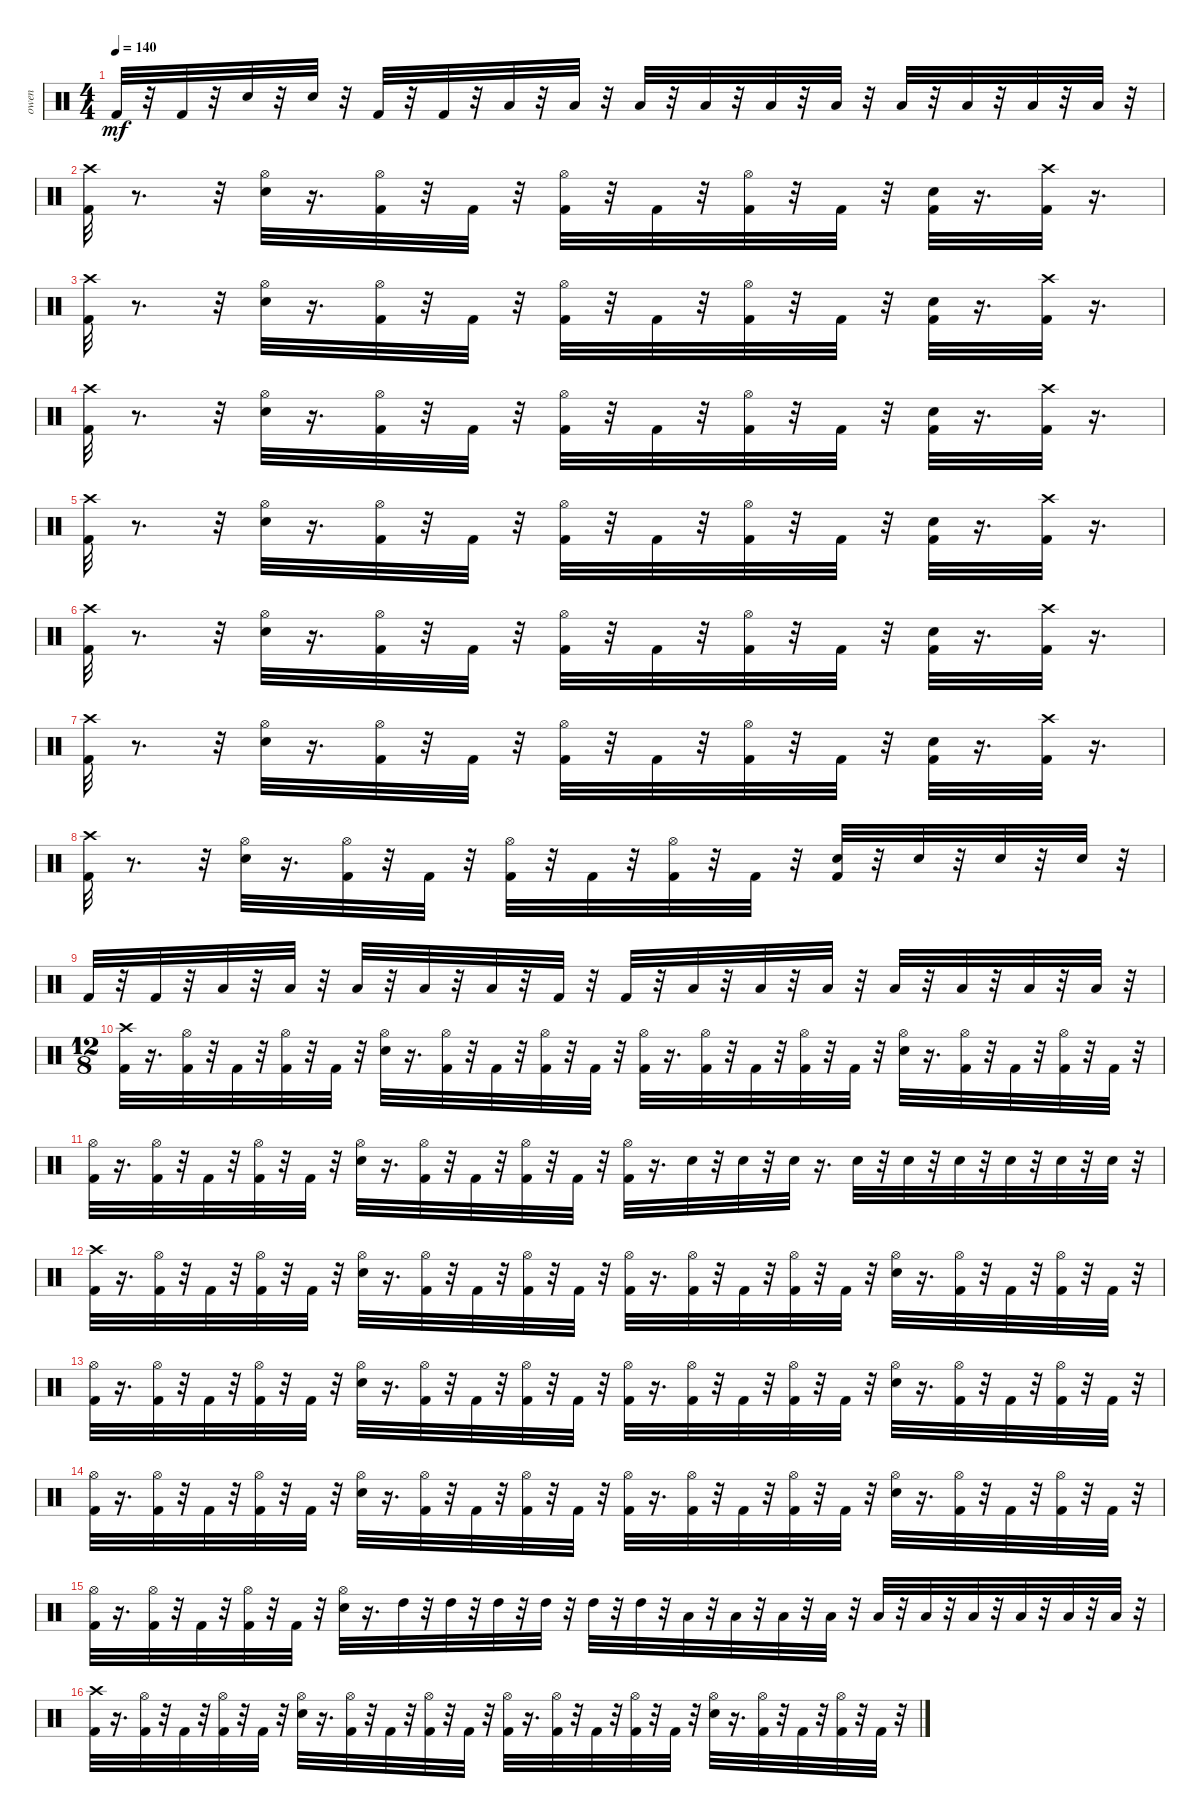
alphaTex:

\track ("owen" "owen") {instrument percussion}
\staff {score}
\articulation defaults
\ts (4 4)
\tempo 140
\clef neutral
\ks c "Kick (hit) 2".32{dy mf}
r.32 "Kick (hit) 2".32 r.32 "Snare (hit) 2".32 r.32 "Snare (hit) 2".32 r.32 "Kick (hit) 2".32 r.32 "Kick (hit) 2".32 r.32 "Low Floor Tom (hit)".32 r.32 "Low Floor Tom (hit)".32 r.32 "Low Floor Tom (hit)".32 r.32 "Low Floor Tom (hit)".32 r.32 "Low Tom (hit)".32 r.32 "Low Tom (hit)".32 r.32 "Low Tom (hit)".32 r.32 "Low Tom (hit)".32 r.32 "Low Tom (hit)".32 r.32 "Low Tom (hit)".32 r.32 |
("Kick (hit) 2" "Crash high (hit)").32 r.8{d} r.32 ("Snare (hit) 2" "Hi-Hat (open)").32 r.16{d} ("Kick (hit) 2" "Hi-Hat (open)").32 r.32 "Kick (hit) 2".32 r.32 ("Kick (hit) 2" "Hi-Hat (open)").32 r.32 "Kick (hit) 2".32 r.32 ("Kick (hit) 2" "Hi-Hat (open)").32 r.32 "Kick (hit) 2".32 r.32 ("Kick (hit) 2" "Snare (hit) 2").32 r.16{d} ("Kick (hit) 2" "Crash high (hit)").32 r.16{d} |
("Kick (hit) 2" "Crash high (hit)").32 r.8{d} r.32 ("Snare (hit) 2" "Hi-Hat (open)").32 r.16{d} ("Hi-Hat (open)" "Kick (hit) 2").32 r.32 "Kick (hit) 2".32 r.32 ("Kick (hit) 2" "Hi-Hat (open)").32 r.32 "Kick (hit) 2".32 r.32 ("Kick (hit) 2" "Hi-Hat (open)").32 r.32 "Kick (hit) 2".32 r.32 ("Kick (hit) 2" "Snare (hit) 2").32 r.16{d} ("Kick (hit) 2" "Crash high (hit)").32 r.16{d} |
("Kick (hit) 2" "Crash high (hit)").32 r.8{d} r.32 ("Snare (hit) 2" "Hi-Hat (open)").32 r.16{d} ("Hi-Hat (open)" "Kick (hit) 2").32 r.32 "Kick (hit) 2".32 r.32 ("Kick (hit) 2" "Hi-Hat (open)").32 r.32 "Kick (hit) 2".32 r.32 ("Kick (hit) 2" "Hi-Hat (open)").32 r.32 "Kick (hit) 2".32 r.32 ("Kick (hit) 2" "Snare (hit) 2").32 r.16{d} ("Kick (hit) 2" "Crash high (hit)").32 r.16{d} |
("Kick (hit) 2" "Crash high (hit)").32 r.8{d} r.32 ("Snare (hit) 2" "Hi-Hat (open)").32 r.16{d} ("Kick (hit) 2" "Hi-Hat (open)").32 r.32 "Kick (hit) 2".32 r.32 ("Kick (hit) 2" "Hi-Hat (open)").32 r.32 "Kick (hit) 2".32 r.32 ("Kick (hit) 2" "Hi-Hat (open)").32 r.32 "Kick (hit) 2".32 r.32 ("Kick (hit) 2" "Snare (hit) 2").32 r.16{d} ("Kick (hit) 2" "Crash high (hit)").32 r.16{d} |
("Kick (hit) 2" "Crash high (hit)").32 r.8{d} r.32 ("Snare (hit) 2" "Hi-Hat (open)").32 r.16{d} ("Kick (hit) 2" "Hi-Hat (open)").32 r.32 "Kick (hit) 2".32 r.32 ("Kick (hit) 2" "Hi-Hat (open)").32 r.32 "Kick (hit) 2".32 r.32 ("Kick (hit) 2" "Hi-Hat (open)").32 r.32 "Kick (hit) 2".32 r.32 ("Kick (hit) 2" "Snare (hit) 2").32 r.16{d} ("Kick (hit) 2" "Crash high (hit)").32 r.16{d} |
("Kick (hit) 2" "Crash high (hit)").32 r.8{d} r.32 ("Snare (hit) 2" "Hi-Hat (open)").32 r.16{d} ("Kick (hit) 2" "Hi-Hat (open)").32 r.32 "Kick (hit) 2".32 r.32 ("Kick (hit) 2" "Hi-Hat (open)").32 r.32 "Kick (hit) 2".32 r.32 ("Kick (hit) 2" "Hi-Hat (open)").32 r.32 "Kick (hit) 2".32 r.32 ("Kick (hit) 2" "Snare (hit) 2").32 r.16{d} ("Kick (hit) 2" "Crash high (hit)").32 r.16{d} |
("Kick (hit) 2" "Crash high (hit)").32 r.8{d} r.32 ("Snare (hit) 2" "Hi-Hat (open)").32 r.16{d} ("Kick (hit) 2" "Hi-Hat (open)").32 r.32 "Kick (hit) 2".32 r.32 ("Kick (hit) 2" "Hi-Hat (open)").32 r.32 "Kick (hit) 2".32 r.32 ("Kick (hit) 2" "Hi-Hat (open)").32 r.32 "Kick (hit) 2".32 r.32 ("Kick (hit) 2" "Snare (hit) 2").32 r.32 "Snare (hit) 2".32 r.32 "Snare (hit) 2".32 r.32 "Snare (hit) 2".32 r.32 |
"Kick (hit) 2".32 r.32 "Kick (hit) 2".32 r.32 "Low Tom (hit)".32 r.32 "Low Tom (hit)".32 r.32 "Low Tom (hit)".32 r.32 "Low Tom (hit)".32 r.32 "Low Tom (hit)".32 r.32 "Kick (hit) 2".32 r.32 "Kick (hit) 2".32 r.32 "Low Floor Tom (hit)".32 r.32 "Low Floor Tom (hit)".32 r.32 "Low Floor Tom (hit)".32 r.32 "Low Floor Tom (hit)".32 r.32 "Low Tom (hit)".32 r.32 "Low Tom (hit)".32 r.32 "Low Tom (hit)".32 r.32 |
\ts (12 8)
("Kick (hit) 2" "Crash high (hit)").32 r.16{d} ("Kick (hit) 2" "Hi-Hat (open)").32 r.32 "Kick (hit) 2".32 r.32 ("Kick (hit) 2" "Hi-Hat (open)").32 r.32 "Kick (hit) 2".32 r.32 ("Snare (hit) 2" "Hi-Hat (open)").32 r.16{d} ("Kick (hit) 2" "Hi-Hat (open)").32 r.32 "Kick (hit) 2".32 r.32 ("Kick (hit) 2" "Hi-Hat (open)").32 r.32 "Kick (hit) 2".32 r.32 ("Kick (hit) 2" "Hi-Hat (open)").32 r.16{d} ("Kick (hit) 2" "Hi-Hat (open)").32 r.32 "Kick (hit) 2".32 r.32 ("Kick (hit) 2" "Hi-Hat (open)").32 r.32 "Kick (hit) 2".32 r.32 ("Snare (hit) 2" "Hi-Hat (open)").32 r.16{d} ("Kick (hit) 2" "Hi-Hat (open)").32 r.32 "Kick (hit) 2".32 r.32 ("Kick (hit) 2" "Hi-Hat (open)").32 r.32 "Kick (hit) 2".32 r.32 |
("Kick (hit) 2" "Hi-Hat (open)").32 r.16{d} ("Kick (hit) 2" "Hi-Hat (open)").32 r.32 "Kick (hit) 2".32 r.32 ("Kick (hit) 2" "Hi-Hat (open)").32 r.32 "Kick (hit) 2".32 r.32 ("Snare (hit) 2" "Hi-Hat (open)").32 r.16{d} ("Kick (hit) 2" "Hi-Hat (open)").32 r.32 "Kick (hit) 2".32 r.32 ("Kick (hit) 2" "Hi-Hat (open)").32 r.32 "Kick (hit) 2".32 r.32 ("Kick (hit) 2" "Hi-Hat (open)").32 r.16{d} "Snare (hit) 2".32 r.32 "Snare (hit) 2".32 r.32 "Snare (hit) 2".32 r.16{d} "Snare (hit) 2".32 r.32 "Snare (hit) 2".32 r.32 "Snare (hit) 2".32 r.32 "Snare (hit) 2".32 r.32 "Snare (hit) 2".32 r.32 "Snare (hit) 2".32 r.32 |
("Kick (hit) 2" "Crash high (hit)").32 r.16{d} ("Kick (hit) 2" "Hi-Hat (open)").32 r.32 "Kick (hit) 2".32 r.32 ("Kick (hit) 2" "Hi-Hat (open)").32 r.32 "Kick (hit) 2".32 r.32 ("Snare (hit) 2" "Hi-Hat (open)").32 r.16{d} ("Kick (hit) 2" "Hi-Hat (open)").32 r.32 "Kick (hit) 2".32 r.32 ("Kick (hit) 2" "Hi-Hat (open)").32 r.32 "Kick (hit) 2".32 r.32 ("Kick (hit) 2" "Hi-Hat (open)").32 r.16{d} ("Kick (hit) 2" "Hi-Hat (open)").32 r.32 "Kick (hit) 2".32 r.32 ("Kick (hit) 2" "Hi-Hat (open)").32 r.32 "Kick (hit) 2".32 r.32 ("Snare (hit) 2" "Hi-Hat (open)").32 r.16{d} ("Kick (hit) 2" "Hi-Hat (open)").32 r.32 "Kick (hit) 2".32 r.32 ("Kick (hit) 2" "Hi-Hat (open)").32 r.32 "Kick (hit) 2".32 r.32 |
("Kick (hit) 2" "Hi-Hat (open)").32 r.16{d} ("Kick (hit) 2" "Hi-Hat (open)").32 r.32 "Kick (hit) 2".32 r.32 ("Kick (hit) 2" "Hi-Hat (open)").32 r.32 "Kick (hit) 2".32 r.32 ("Snare (hit) 2" "Hi-Hat (open)").32 r.16{d} ("Kick (hit) 2" "Hi-Hat (open)").32 r.32 "Kick (hit) 2".32 r.32 ("Kick (hit) 2" "Hi-Hat (open)").32 r.32 "Kick (hit) 2".32 r.32 ("Kick (hit) 2" "Hi-Hat (open)").32 r.16{d} ("Kick (hit) 2" "Hi-Hat (open)").32 r.32 "Kick (hit) 2".32 r.32 ("Kick (hit) 2" "Hi-Hat (open)").32 r.32 "Kick (hit) 2".32 r.32 ("Snare (hit) 2" "Hi-Hat (open)").32 r.16{d} ("Kick (hit) 2" "Hi-Hat (open)").32 r.32 "Kick (hit) 2".32 r.32 ("Kick (hit) 2" "Hi-Hat (open)").32 r.32 "Kick (hit) 2".32 r.32 |
("Kick (hit) 2" "Hi-Hat (open)").32 r.16{d} ("Kick (hit) 2" "Hi-Hat (open)").32 r.32 "Kick (hit) 2".32 r.32 ("Kick (hit) 2" "Hi-Hat (open)").32 r.32 "Kick (hit) 2".32 r.32 ("Snare (hit) 2" "Hi-Hat (open)").32 r.16{d} ("Kick (hit) 2" "Hi-Hat (open)").32 r.32 "Kick (hit) 2".32 r.32 ("Kick (hit) 2" "Hi-Hat (open)").32 r.32 "Kick (hit) 2".32 r.32 ("Kick (hit) 2" "Hi-Hat (open)").32 r.16{d} ("Kick (hit) 2" "Hi-Hat (open)").32 r.32 "Kick (hit) 2".32 r.32 ("Kick (hit) 2" "Hi-Hat (open)").32 r.32 "Kick (hit) 2".32 r.32 ("Snare (hit) 2" "Hi-Hat (open)").32 r.16{d} ("Kick (hit) 2" "Hi-Hat (open)").32 r.32 "Kick (hit) 2".32 r.32 ("Kick (hit) 2" "Hi-Hat (open)").32 r.32 "Kick (hit) 2".32 r.32 |
("Kick (hit) 2" "Hi-Hat (open)").32 r.16{d} ("Kick (hit) 2" "Hi-Hat (open)").32 r.32 "Kick (hit) 2".32 r.32 ("Kick (hit) 2" "Hi-Hat (open)").32 r.32 "Kick (hit) 2".32 r.32 ("Snare (hit) 2" "Hi-Hat (open)").32 r.16{d} "High Tom (hit)".32 r.32 "High Tom (hit)".32 r.32 "High Tom (hit)".32 r.32 "High Tom (hit)".32 r.32 "High Tom (hit)".32 r.32 "High Tom (hit)".32 r.32 "Low Tom (hit)".32 r.32 "Low Tom (hit)".32 r.32 "Low Tom (hit)".32 r.32 "Low Tom (hit)".32 r.32 "Low Tom (hit)".32 r.32 "Low Floor Tom (hit)".32 r.32 "Low Floor Tom (hit)".32 r.32 "Low Floor Tom (hit)".32 r.32 "Low Floor Tom (hit)".32 r.32 "Low Floor Tom (hit)".32 r.32 |
("Kick (hit) 2" "Crash high (hit)").32 r.16{d} ("Kick (hit) 2" "Hi-Hat (open)").32 r.32 "Kick (hit) 2".32 r.32 ("Kick (hit) 2" "Hi-Hat (open)").32 r.32 "Kick (hit) 2".32 r.32 ("Snare (hit) 2" "Hi-Hat (open)").32 r.16{d} ("Kick (hit) 2" "Hi-Hat (open)").32 r.32 "Kick (hit) 2".32 r.32 ("Kick (hit) 2" "Hi-Hat (open)").32 r.32 "Kick (hit) 2".32 r.32 ("Kick (hit) 2" "Hi-Hat (open)").32 r.16{d} ("Kick (hit) 2" "Hi-Hat (open)").32 r.32 "Kick (hit) 2".32 r.32 ("Kick (hit) 2" "Hi-Hat (open)").32 r.32 "Kick (hit) 2".32 r.32 ("Snare (hit) 2" "Hi-Hat (open)").32 r.16{d} ("Kick (hit) 2" "Hi-Hat (open)").32 r.32 "Kick (hit) 2".32 r.32 ("Kick (hit) 2" "Hi-Hat (open)").32 r.32 "Kick (hit) 2".32 r.32
